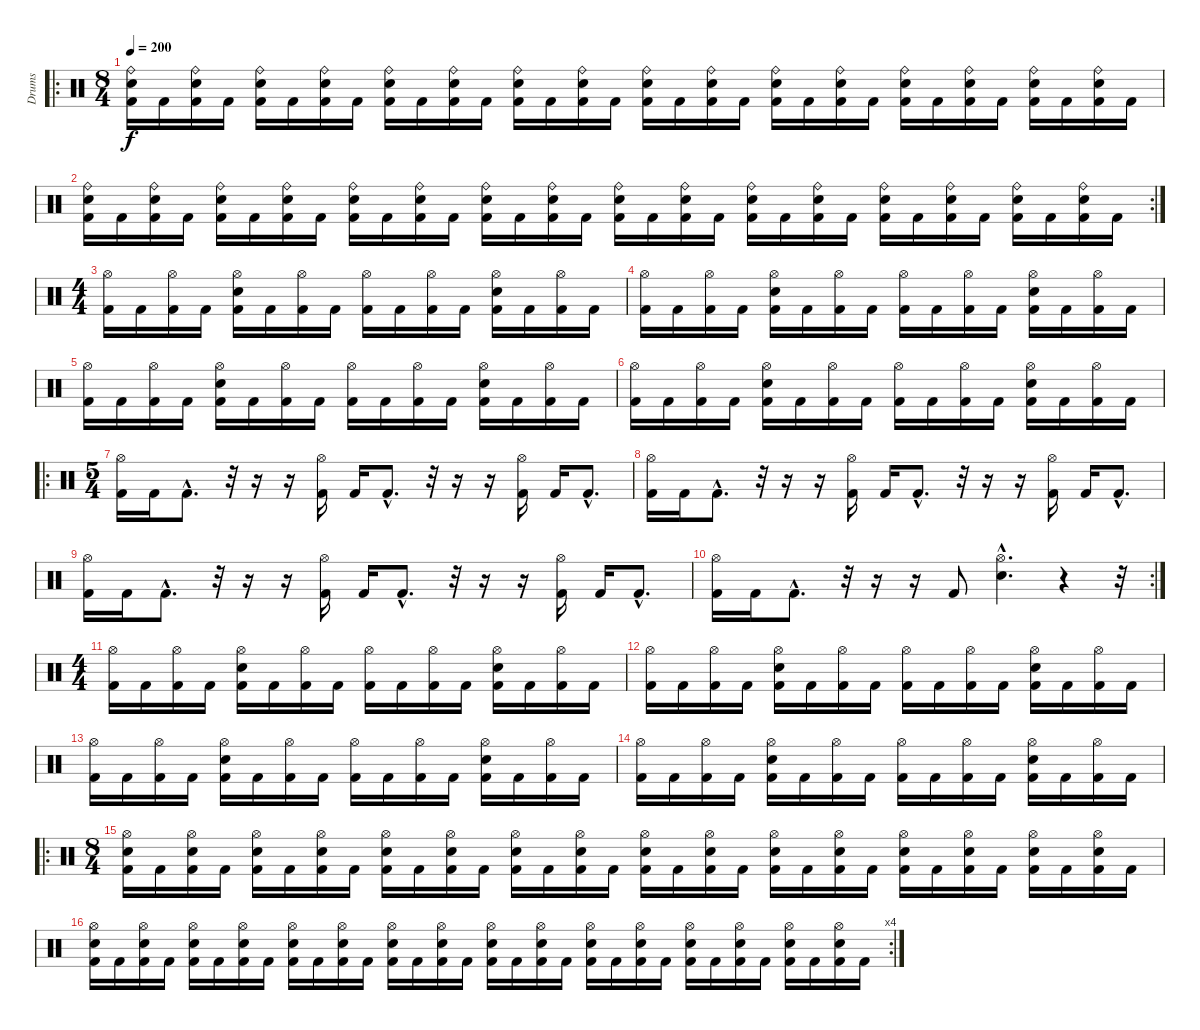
\track ("Drums" "Drums") {instrument percussion}
\staff {score}
\articulation defaults
\ro
\ts (8 4)
\tempo 200
\clef neutral
\ks c
("Ride (bell)" "Snare (hit) 2" "Kick (hit) 2").16{dy f} "Kick (hit) 2".16 ("Ride (bell)" "Snare (hit) 2" "Kick (hit) 2").16 "Kick (hit) 2".16 ("Ride (bell)" "Snare (hit) 2" "Kick (hit) 2").16 "Kick (hit) 2".16 ("Ride (bell)" "Snare (hit) 2" "Kick (hit) 2").16 "Kick (hit) 2".16 ("Ride (bell)" "Snare (hit) 2" "Kick (hit) 2").16 "Kick (hit) 2".16 ("Ride (bell)" "Snare (hit) 2" "Kick (hit) 2").16 "Kick (hit) 2".16 ("Ride (bell)" "Snare (hit) 2" "Kick (hit) 2").16 "Kick (hit) 2".16 ("Ride (bell)" "Snare (hit) 2" "Kick (hit) 2").16 "Kick (hit) 2".16 ("Ride (bell)" "Snare (hit) 2" "Kick (hit) 2").16 "Kick (hit) 2".16 ("Ride (bell)" "Snare (hit) 2" "Kick (hit) 2").16 "Kick (hit) 2".16 ("Ride (bell)" "Snare (hit) 2" "Kick (hit) 2").16 "Kick (hit) 2".16 ("Ride (bell)" "Snare (hit) 2" "Kick (hit) 2").16 "Kick (hit) 2".16 ("Ride (bell)" "Snare (hit) 2" "Kick (hit) 2").16 "Kick (hit) 2".16 ("Ride (bell)" "Snare (hit) 2" "Kick (hit) 2").16 "Kick (hit) 2".16 ("Ride (bell)" "Snare (hit) 2" "Kick (hit) 2").16 "Kick (hit) 2".16 ("Ride (bell)" "Snare (hit) 2" "Kick (hit) 2").16 "Kick (hit) 2".16 |
\rc 2
("Ride (bell)" "Snare (hit) 2" "Kick (hit) 2").16 "Kick (hit) 2".16 ("Ride (bell)" "Snare (hit) 2" "Kick (hit) 2").16 "Kick (hit) 2".16 ("Ride (bell)" "Snare (hit) 2" "Kick (hit) 2").16 "Kick (hit) 2".16 ("Ride (bell)" "Snare (hit) 2" "Kick (hit) 2").16 "Kick (hit) 2".16 ("Ride (bell)" "Snare (hit) 2" "Kick (hit) 2").16 "Kick (hit) 2".16 ("Ride (bell)" "Snare (hit) 2" "Kick (hit) 2").16 "Kick (hit) 2".16 ("Ride (bell)" "Snare (hit) 2" "Kick (hit) 2").16 "Kick (hit) 2".16 ("Ride (bell)" "Snare (hit) 2" "Kick (hit) 2").16 "Kick (hit) 2".16 ("Ride (bell)" "Snare (hit) 2" "Kick (hit) 2").16 "Kick (hit) 2".16 ("Ride (bell)" "Snare (hit) 2" "Kick (hit) 2").16 "Kick (hit) 2".16 ("Ride (bell)" "Snare (hit) 2" "Kick (hit) 2").16 "Kick (hit) 2".16 ("Ride (bell)" "Snare (hit) 2" "Kick (hit) 2").16 "Kick (hit) 2".16 ("Ride (bell)" "Snare (hit) 2" "Kick (hit) 2").16 "Kick (hit) 2".16 ("Ride (bell)" "Snare (hit) 2" "Kick (hit) 2").16 "Kick (hit) 2".16 ("Ride (bell)" "Snare (hit) 2" "Kick (hit) 2").16 "Kick (hit) 2".16 ("Ride (bell)" "Snare (hit) 2" "Kick (hit) 2").16 "Kick (hit) 2".16 |
\ts (4 4)
("Hi-Hat (open)" "Kick (hit) 2").16 "Kick (hit) 2".16 ("Hi-Hat (open)" "Kick (hit) 2").16 "Kick (hit) 2".16 ("Hi-Hat (open)" "Snare (hit) 2" "Kick (hit) 2").16 "Kick (hit) 2".16 ("Hi-Hat (open)" "Kick (hit) 2").16 "Kick (hit) 2".16 ("Hi-Hat (open)" "Kick (hit) 2").16 "Kick (hit) 2".16 ("Hi-Hat (open)" "Kick (hit) 2").16 "Kick (hit) 2".16 ("Hi-Hat (open)" "Snare (hit) 2" "Kick (hit) 2").16 "Kick (hit) 2".16 ("Hi-Hat (open)" "Kick (hit) 2").16 "Kick (hit) 2".16 |
("Hi-Hat (open)" "Kick (hit) 2").16 "Kick (hit) 2".16 ("Hi-Hat (open)" "Kick (hit) 2").16 "Kick (hit) 2".16 ("Hi-Hat (open)" "Snare (hit) 2" "Kick (hit) 2").16 "Kick (hit) 2".16 ("Hi-Hat (open)" "Kick (hit) 2").16 "Kick (hit) 2".16 ("Hi-Hat (open)" "Kick (hit) 2").16 "Kick (hit) 2".16 ("Hi-Hat (open)" "Kick (hit) 2").16 "Kick (hit) 2".16 ("Hi-Hat (open)" "Snare (hit) 2" "Kick (hit) 2").16 "Kick (hit) 2".16 ("Hi-Hat (open)" "Kick (hit) 2").16 "Kick (hit) 2".16 |
("Hi-Hat (open)" "Kick (hit) 2").16 "Kick (hit) 2".16 ("Hi-Hat (open)" "Kick (hit) 2").16 "Kick (hit) 2".16 ("Hi-Hat (open)" "Snare (hit) 2" "Kick (hit) 2").16 "Kick (hit) 2".16 ("Hi-Hat (open)" "Kick (hit) 2").16 "Kick (hit) 2".16 ("Hi-Hat (open)" "Kick (hit) 2").16 "Kick (hit) 2".16 ("Hi-Hat (open)" "Kick (hit) 2").16 "Kick (hit) 2".16 ("Hi-Hat (open)" "Snare (hit) 2" "Kick (hit) 2").16 "Kick (hit) 2".16 ("Hi-Hat (open)" "Kick (hit) 2").16 "Kick (hit) 2".16 |
("Hi-Hat (open)" "Kick (hit) 2").16 "Kick (hit) 2".16 ("Hi-Hat (open)" "Kick (hit) 2").16 "Kick (hit) 2".16 ("Hi-Hat (open)" "Snare (hit) 2" "Kick (hit) 2").16 "Kick (hit) 2".16 ("Hi-Hat (open)" "Kick (hit) 2").16 "Kick (hit) 2".16 ("Hi-Hat (open)" "Kick (hit) 2").16 "Kick (hit) 2".16 ("Hi-Hat (open)" "Kick (hit) 2").16 "Kick (hit) 2".16 ("Hi-Hat (open)" "Snare (hit) 2" "Kick (hit) 2").16 "Kick (hit) 2".16 ("Hi-Hat (open)" "Kick (hit) 2").16 "Kick (hit) 2".16 |
\ro
\ts (5 4)
("Hi-Hat (open)" "Kick (hit) 2").16 "Kick (hit) 2".16 "Kick (hit) 2"{hac}.8{d} r.32 r.16 r.16 ("Hi-Hat (open)" "Kick (hit) 2").16 "Kick (hit) 2".16 "Kick (hit) 2"{hac}.8{d} r.32 r.16 r.16 ("Hi-Hat (open)" "Kick (hit) 2").16 "Kick (hit) 2".16 "Kick (hit) 2"{hac}.8{d} |
("Hi-Hat (open)" "Kick (hit) 2").16 "Kick (hit) 2".16 "Kick (hit) 2"{hac}.8{d} r.32 r.16 r.16 ("Hi-Hat (open)" "Kick (hit) 2").16 "Kick (hit) 2".16 "Kick (hit) 2"{hac}.8{d} r.32 r.16 r.16 ("Hi-Hat (open)" "Kick (hit) 2").16 "Kick (hit) 2".16 "Kick (hit) 2"{hac}.8{d} |
("Hi-Hat (open)" "Kick (hit) 2").16 "Kick (hit) 2".16 "Kick (hit) 2"{hac}.8{d} r.32 r.16 r.16 ("Hi-Hat (open)" "Kick (hit) 2").16 "Kick (hit) 2".16 "Kick (hit) 2"{hac}.8{d} r.32 r.16 r.16 ("Hi-Hat (open)" "Kick (hit) 2").16 "Kick (hit) 2".16 "Kick (hit) 2"{hac}.8{d} |
\rc 2
("Hi-Hat (open)" "Kick (hit) 2").16 "Kick (hit) 2".16 "Kick (hit) 2"{hac}.8{d} r.32 r.16 r.16 "Kick (hit) 2".8 ("Hi-Hat (open)"{hac} "Snare (hit) 2"{hac}).4{d} r.4 r.32 |
\ts (4 4)
("Hi-Hat (open)" "Kick (hit) 2").16 "Kick (hit) 2".16 ("Hi-Hat (open)" "Kick (hit) 2").16 "Kick (hit) 2".16 ("Hi-Hat (open)" "Snare (hit) 2" "Kick (hit) 2").16 "Kick (hit) 2".16 ("Hi-Hat (open)" "Kick (hit) 2").16 "Kick (hit) 2".16 ("Hi-Hat (open)" "Kick (hit) 2").16 "Kick (hit) 2".16 ("Hi-Hat (open)" "Kick (hit) 2").16 "Kick (hit) 2".16 ("Hi-Hat (open)" "Snare (hit) 2" "Kick (hit) 2").16 "Kick (hit) 2".16 ("Hi-Hat (open)" "Kick (hit) 2").16 "Kick (hit) 2".16 |
("Hi-Hat (open)" "Kick (hit) 2").16 "Kick (hit) 2".16 ("Hi-Hat (open)" "Kick (hit) 2").16 "Kick (hit) 2".16 ("Hi-Hat (open)" "Snare (hit) 2" "Kick (hit) 2").16 "Kick (hit) 2".16 ("Hi-Hat (open)" "Kick (hit) 2").16 "Kick (hit) 2".16 ("Hi-Hat (open)" "Kick (hit) 2").16 "Kick (hit) 2".16 ("Hi-Hat (open)" "Kick (hit) 2").16 "Kick (hit) 2".16 ("Hi-Hat (open)" "Snare (hit) 2" "Kick (hit) 2").16 "Kick (hit) 2".16 ("Hi-Hat (open)" "Kick (hit) 2").16 "Kick (hit) 2".16 |
("Hi-Hat (open)" "Kick (hit) 2").16 "Kick (hit) 2".16 ("Hi-Hat (open)" "Kick (hit) 2").16 "Kick (hit) 2".16 ("Hi-Hat (open)" "Snare (hit) 2" "Kick (hit) 2").16 "Kick (hit) 2".16 ("Hi-Hat (open)" "Kick (hit) 2").16 "Kick (hit) 2".16 ("Hi-Hat (open)" "Kick (hit) 2").16 "Kick (hit) 2".16 ("Hi-Hat (open)" "Kick (hit) 2").16 "Kick (hit) 2".16 ("Hi-Hat (open)" "Snare (hit) 2" "Kick (hit) 2").16 "Kick (hit) 2".16 ("Hi-Hat (open)" "Kick (hit) 2").16 "Kick (hit) 2".16 |
("Hi-Hat (open)" "Kick (hit) 2").16 "Kick (hit) 2".16 ("Hi-Hat (open)" "Kick (hit) 2").16 "Kick (hit) 2".16 ("Hi-Hat (open)" "Snare (hit) 2" "Kick (hit) 2").16 "Kick (hit) 2".16 ("Hi-Hat (open)" "Kick (hit) 2").16 "Kick (hit) 2".16 ("Hi-Hat (open)" "Kick (hit) 2").16 "Kick (hit) 2".16 ("Hi-Hat (open)" "Kick (hit) 2").16 "Kick (hit) 2".16 ("Hi-Hat (open)" "Snare (hit) 2" "Kick (hit) 2").16 "Kick (hit) 2".16 ("Hi-Hat (open)" "Kick (hit) 2").16 "Kick (hit) 2".16 |
\ro
\ts (8 4)
("Hi-Hat (open)" "Snare (hit) 2" "Kick (hit) 2").16 "Kick (hit) 2".16 ("Hi-Hat (open)" "Snare (hit) 2" "Kick (hit) 2").16 "Kick (hit) 2".16 ("Hi-Hat (open)" "Snare (hit) 2" "Kick (hit) 2").16 "Kick (hit) 2".16 ("Hi-Hat (open)" "Snare (hit) 2" "Kick (hit) 2").16 "Kick (hit) 2".16 ("Hi-Hat (open)" "Snare (hit) 2" "Kick (hit) 2").16 "Kick (hit) 2".16 ("Hi-Hat (open)" "Snare (hit) 2" "Kick (hit) 2").16 "Kick (hit) 2".16 ("Hi-Hat (open)" "Snare (hit) 2" "Kick (hit) 2").16 "Kick (hit) 2".16 ("Hi-Hat (open)" "Snare (hit) 2" "Kick (hit) 2").16 "Kick (hit) 2".16 ("Hi-Hat (open)" "Snare (hit) 2" "Kick (hit) 2").16 "Kick (hit) 2".16 ("Hi-Hat (open)" "Snare (hit) 2" "Kick (hit) 2").16 "Kick (hit) 2".16 ("Hi-Hat (open)" "Snare (hit) 2" "Kick (hit) 2").16 "Kick (hit) 2".16 ("Hi-Hat (open)" "Snare (hit) 2" "Kick (hit) 2").16 "Kick (hit) 2".16 ("Hi-Hat (open)" "Snare (hit) 2" "Kick (hit) 2").16 "Kick (hit) 2".16 ("Hi-Hat (open)" "Snare (hit) 2" "Kick (hit) 2").16 "Kick (hit) 2".16 ("Hi-Hat (open)" "Snare (hit) 2" "Kick (hit) 2").16 "Kick (hit) 2".16 ("Hi-Hat (open)" "Snare (hit) 2" "Kick (hit) 2").16 "Kick (hit) 2".16 |
\rc 4
("Hi-Hat (open)" "Snare (hit) 2" "Kick (hit) 2").16 "Kick (hit) 2".16 ("Hi-Hat (open)" "Snare (hit) 2" "Kick (hit) 2").16 "Kick (hit) 2".16 ("Hi-Hat (open)" "Snare (hit) 2" "Kick (hit) 2").16 "Kick (hit) 2".16 ("Hi-Hat (open)" "Snare (hit) 2" "Kick (hit) 2").16 "Kick (hit) 2".16 ("Hi-Hat (open)" "Snare (hit) 2" "Kick (hit) 2").16 "Kick (hit) 2".16 ("Hi-Hat (open)" "Snare (hit) 2" "Kick (hit) 2").16 "Kick (hit) 2".16 ("Hi-Hat (open)" "Snare (hit) 2" "Kick (hit) 2").16 "Kick (hit) 2".16 ("Hi-Hat (open)" "Snare (hit) 2" "Kick (hit) 2").16 "Kick (hit) 2".16 ("Hi-Hat (open)" "Snare (hit) 2" "Kick (hit) 2").16 "Kick (hit) 2".16 ("Hi-Hat (open)" "Snare (hit) 2" "Kick (hit) 2").16 "Kick (hit) 2".16 ("Hi-Hat (open)" "Snare (hit) 2" "Kick (hit) 2").16 "Kick (hit) 2".16 ("Hi-Hat (open)" "Snare (hit) 2" "Kick (hit) 2").16 "Kick (hit) 2".16 ("Hi-Hat (open)" "Snare (hit) 2" "Kick (hit) 2").16 "Kick (hit) 2".16 ("Hi-Hat (open)" "Snare (hit) 2" "Kick (hit) 2").16 "Kick (hit) 2".16 ("Hi-Hat (open)" "Snare (hit) 2" "Kick (hit) 2").16 "Kick (hit) 2".16 ("Hi-Hat (open)" "Snare (hit) 2" "Kick (hit) 2").16 "Kick (hit) 2".16
